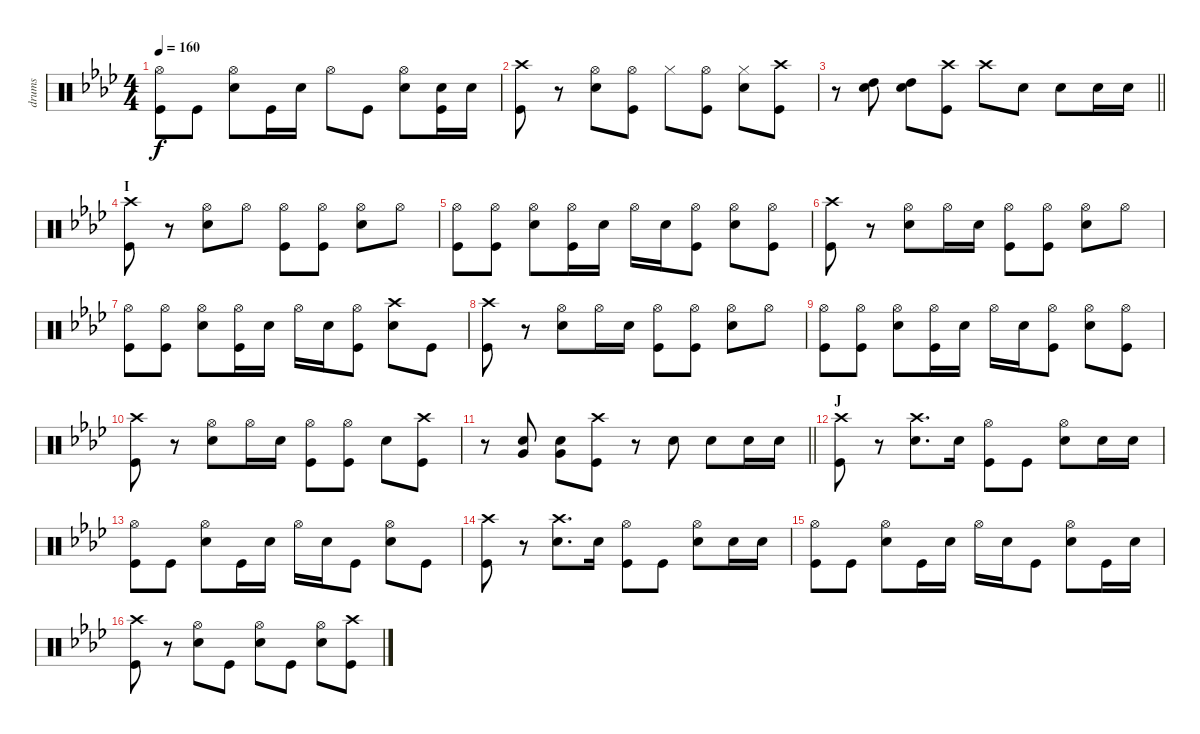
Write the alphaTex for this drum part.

\track ("drums" "drums") {instrument percussion}
\staff {score}
\articulation defaults
\ts (4 4)
\tempo 160
\clef neutral
\ks ab
("Hi-Hat (open)" "Kick (hit)").8{dy f} "Kick (hit)".8 ("Hi-Hat (open)" "Snare (hit) 2").8 "Kick (hit)".16 "Snare (hit) 2".16 "Hi-Hat (open)".8 "Kick (hit)".8 ("Hi-Hat (open)" "Snare (hit) 2").8 ("Snare (hit) 2" "Kick (hit)").16 "Snare (hit) 2".16 |
("Crash high (hit)" "Kick (hit)").8 r.8 ("Hi-Hat (open)" "Snare (hit) 2").8 ("Hi-Hat (open)" "Kick (hit)").8 "Hi-Hat (closed)".8 ("Hi-Hat (open)" "Kick (hit)").8 ("Hi-Hat (closed)" "Snare (hit) 2").8 ("Crash high (hit)" "Kick (hit)").8 |
\barLineRight lightlight
r.8 ("High Tom (hit)" "Snare (hit) 2").8 ("High Tom (hit)" "Snare (hit) 2").8 ("Crash high (hit)" "Kick (hit)").8 "Crash high (hit)".8 "Snare (hit) 2".8 "Snare (hit) 2".8 "Snare (hit) 2".16 "Snare (hit) 2".16 |
\section ("" "I")
("Crash high (hit)" "Kick (hit)").8 r.8 ("Hi-Hat (open)" "Snare (hit) 2").8 "Hi-Hat (open)".8 ("Hi-Hat (open)" "Kick (hit)").8 ("Hi-Hat (open)" "Kick (hit)").8 ("Hi-Hat (open)" "Snare (hit) 2").8 "Hi-Hat (open)".8 |
("Hi-Hat (open)" "Kick (hit)").8 ("Hi-Hat (open)" "Kick (hit)").8 ("Hi-Hat (open)" "Snare (hit) 2").8 ("Hi-Hat (open)" "Kick (hit)").16 "Snare (hit) 2".16 "Hi-Hat (open)".16 "Snare (hit) 2".16 ("Hi-Hat (open)" "Kick (hit)").8 ("Hi-Hat (open)" "Snare (hit) 2").8 ("Hi-Hat (open)" "Kick (hit)").8 |
("Crash high (hit)" "Kick (hit)").8 r.8 ("Hi-Hat (open)" "Snare (hit) 2").8 "Hi-Hat (open)".16 "Snare (hit) 2".16 ("Hi-Hat (open)" "Kick (hit)").8 ("Hi-Hat (open)" "Kick (hit)").8 ("Hi-Hat (open)" "Snare (hit) 2").8 "Hi-Hat (open)".8 |
("Hi-Hat (open)" "Kick (hit)").8 ("Hi-Hat (open)" "Kick (hit)").8 ("Hi-Hat (open)" "Snare (hit) 2").8 ("Hi-Hat (open)" "Kick (hit)").16 "Snare (hit) 2".16 "Hi-Hat (open)".16 "Snare (hit) 2".16 ("Hi-Hat (open)" "Kick (hit)").8 ("Crash high (hit)" "Snare (hit) 2").8 "Kick (hit)".8 |
("Crash high (hit)" "Kick (hit)").8 r.8 ("Hi-Hat (open)" "Snare (hit) 2").8 "Hi-Hat (open)".16 "Snare (hit) 2".16 ("Hi-Hat (open)" "Kick (hit)").8 ("Hi-Hat (open)" "Kick (hit)").8 ("Hi-Hat (open)" "Snare (hit) 2").8 "Hi-Hat (open)".8 |
("Hi-Hat (open)" "Kick (hit)").8 ("Hi-Hat (open)" "Kick (hit)").8 ("Hi-Hat (open)" "Snare (hit) 2").8 ("Hi-Hat (open)" "Kick (hit)").16 "Snare (hit) 2".16 "Hi-Hat (open)".16 "Snare (hit) 2".16 ("Hi-Hat (open)" "Kick (hit)").8 ("Hi-Hat (open)" "Snare (hit) 2").8 ("Hi-Hat (open)" "Kick (hit)").8 |
("Crash high (hit)" "Kick (hit)").8 r.8 ("Hi-Hat (open)" "Snare (hit) 2").8 "Hi-Hat (open)".16 "Snare (hit) 2".16 ("Hi-Hat (open)" "Kick (hit)").8 ("Hi-Hat (open)" "Kick (hit)").8 "Snare (hit) 2".8 ("Crash high (hit)" "Kick (hit)").8 |
\barLineRight lightlight
r.8 ("Snare (hit) 2" "Very Low Tom (hit)").8 ("Snare (hit) 2" "Very Low Tom (hit)").8 ("Crash high (hit)" "Kick (hit)").8 r.8 "Snare (hit) 2".8 "Snare (hit) 2".8 "Snare (hit) 2".16 "Snare (hit) 2".16 |
\section ("" "J")
("Crash high (hit)" "Kick (hit)").8 r.8 ("Crash high (hit)" "Snare (hit) 2").8{d} "Snare (hit) 2".16 ("Hi-Hat (open)" "Kick (hit)").8 "Kick (hit)".8 ("Hi-Hat (open)" "Snare (hit) 2").8 "Snare (hit) 2".16 "Snare (hit) 2".16 |
("Hi-Hat (open)" "Kick (hit)").8 "Kick (hit)".8 ("Hi-Hat (open)" "Snare (hit) 2").8 "Kick (hit)".16 "Snare (hit) 2".16 "Hi-Hat (open)".16 "Snare (hit) 2".16 "Kick (hit)".8 ("Hi-Hat (open)" "Snare (hit) 2").8 "Kick (hit)".8 |
("Crash high (hit)" "Kick (hit)").8 r.8 ("Crash high (hit)" "Snare (hit) 2").8{d} "Snare (hit) 2".16 ("Hi-Hat (open)" "Kick (hit)").8 "Kick (hit)".8 ("Hi-Hat (open)" "Snare (hit) 2").8 "Snare (hit) 2".16 "Snare (hit) 2".16 |
("Hi-Hat (open)" "Kick (hit)").8 "Kick (hit)".8 ("Hi-Hat (open)" "Snare (hit) 2").8 "Kick (hit)".16 "Snare (hit) 2".16 "Hi-Hat (open)".16 "Snare (hit) 2".16 "Kick (hit)".8 ("Hi-Hat (open)" "Snare (hit) 2").8 "Kick (hit)".16 "Snare (hit) 2".16 |
("Crash high (hit)" "Kick (hit)").8 r.8 ("Hi-Hat (open)" "Snare (hit) 2").8 "Kick (hit)".8 ("Hi-Hat (open)" "Snare (hit) 2").8 "Kick (hit)".8 ("Hi-Hat (open)" "Snare (hit) 2").8 ("Crash high (hit)" "Kick (hit)").8
